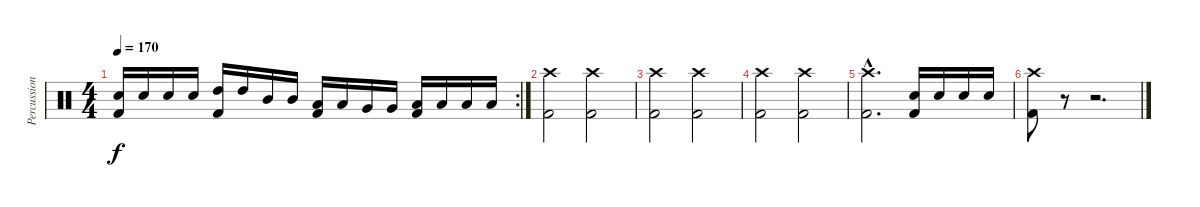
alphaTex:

\track ("Percussion" "Percussion") {instrument percussion}
\staff {score}
\articulation defaults
\rc 2
\ts (4 4)
\tempo 170
\clef neutral
\ks c
("Kick (hit) 2" "Snare (hit) 2").16{dy f} "Snare (hit) 2".16 "Snare (hit) 2".16 "Snare (hit) 2".16 ("Kick (hit) 2" "High Tom (hit)").16 "High Tom (hit)".16 "Mid Tom (hit)".16 "Mid Tom (hit)".16 ("Kick (hit) 2" "Low Tom (hit)").16 "Low Tom (hit)".16 "Very Low Tom (hit)".16 "Very Low Tom (hit)".16 ("Kick (hit) 2" "Low Tom (hit)").16 "Low Tom (hit)".16 "Low Tom (hit)".16 "Low Tom (hit)".16 |
("Kick (hit) 2" "Crash high (hit)").2 ("Kick (hit) 2" "Crash high (hit)").2 |
("Kick (hit) 2" "Crash high (hit)").2 ("Kick (hit) 2" "Crash high (hit)").2 |
("Kick (hit) 2" "Crash high (hit)").2 ("Kick (hit) 2" "Crash high (hit)").2 |
("Kick (hit) 2"{hac} "Crash high (hit)"{hac}).2{d} ("Kick (hit) 2" "Snare (hit) 2").16 "Snare (hit) 2".16 "Snare (hit) 2".16 "Snare (hit) 2".16 |
("Kick (hit) 2" "Crash high (hit)").8 r.8 r.2{d}
